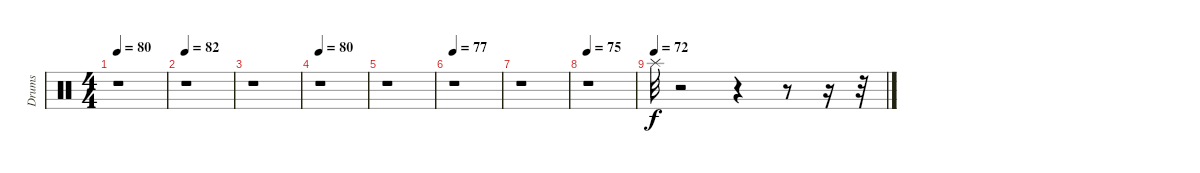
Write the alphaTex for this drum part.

\track ("Drums" "Drums") {instrument percussion}
\staff {score}
\articulation defaults
\ts (4 4)
\tempo 80
\clef neutral
\ks c
r.1{dy mf} |
\tempo 82
r.1 |
r.1 |
\tempo 80
r.1 |
r.1 |
\tempo 77
r.1 |
r.1 |
\tempo 75
r.1 |
\tempo (72)
"Splash (hit)".32{dy f} r.2 r.4 r.8 r.16 r.32
